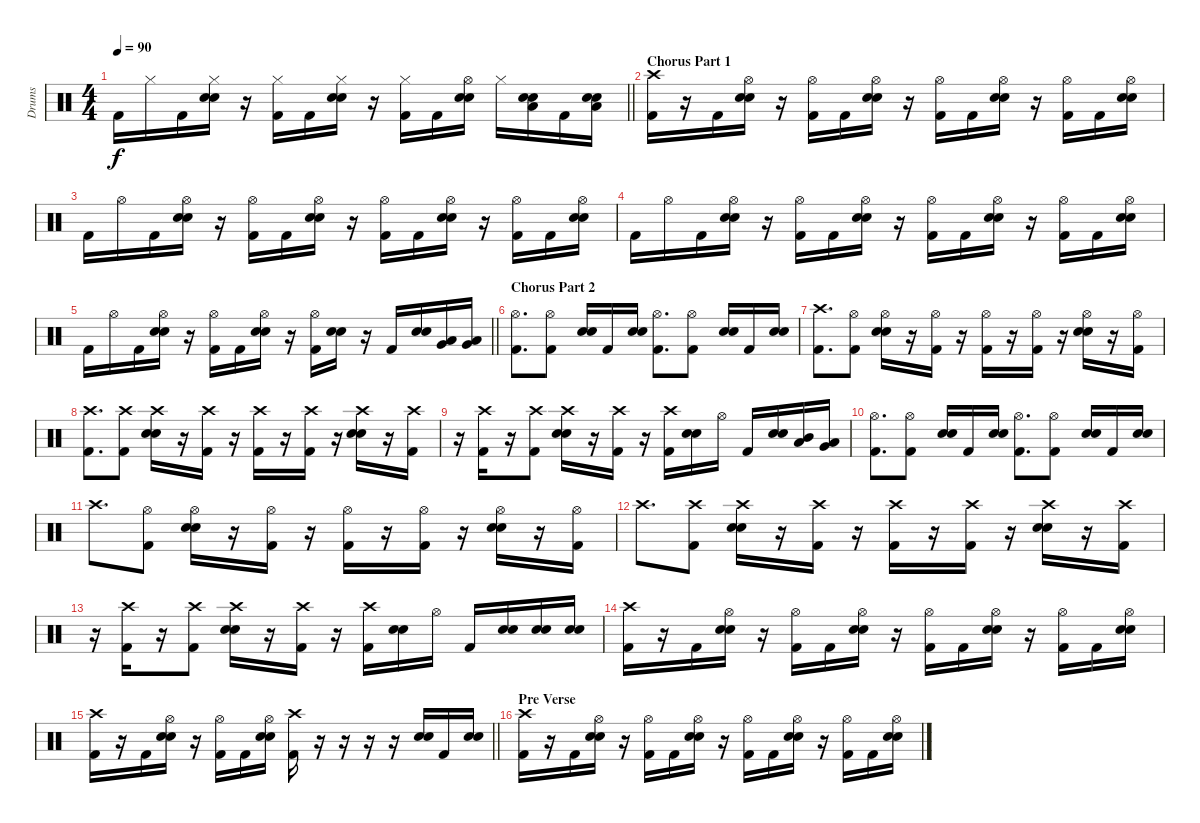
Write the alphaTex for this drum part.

\track ("Drums" "Drums") {instrument percussion}
\staff {score}
\articulation defaults
\ts (4 4)
\tempo 90
\clef neutral
\barLineRight lightlight
\ks c "Kick (hit) 2".16{dy f} "Hi-Hat (closed)".16 "Kick (hit) 2".16
("Hi-Hat (closed)" "Snare (hit) 2" "Snare (hit) 2").16 r.16 ("Hi-Hat (closed)" "Kick (hit) 2").16 "Kick (hit) 2".16 ("Hi-Hat (closed)" "Snare (hit) 2" "Snare (hit) 2").16 r.16 ("Hi-Hat (closed)" "Kick (hit) 2").16 "Kick (hit) 2".16 ("Hi-Hat (open)" "Snare (hit) 2" "Snare (hit) 2").16 "Hi-Hat (closed)".16 ("Low Floor Tom (hit)" "Snare (hit) 2" "Snare (hit) 2").16 "Kick (hit) 2".16 ("Low Floor Tom (hit)" "Snare (hit) 2" "Snare (hit) 2").16 |
\section ("" "Chorus Part 1")
("Crash high (hit)" "Kick (hit) 2").16 r.16 "Kick (hit) 2".16 ("Hi-Hat (open)" "Snare (hit) 2" "Snare (hit) 2").16 r.16 ("Hi-Hat (open)" "Kick (hit) 2").16 "Kick (hit) 2".16 ("Hi-Hat (open)" "Snare (hit) 2" "Snare (hit) 2").16 r.16 ("Hi-Hat (open)" "Kick (hit) 2").16 "Kick (hit) 2".16 ("Hi-Hat (open)" "Snare (hit) 2" "Snare (hit) 2").16 r.16 ("Hi-Hat (open)" "Kick (hit) 2").16 "Kick (hit) 2".16 ("Hi-Hat (open)" "Snare (hit) 2" "Snare (hit) 2").16 |
"Kick (hit) 2".16 "Hi-Hat (open)".16 "Kick (hit) 2".16 ("Hi-Hat (open)" "Snare (hit) 2" "Snare (hit) 2").16 r.16 ("Hi-Hat (open)" "Kick (hit) 2").16 "Kick (hit) 2".16 ("Hi-Hat (open)" "Snare (hit) 2" "Snare (hit) 2").16 r.16 ("Hi-Hat (open)" "Kick (hit) 2").16 "Kick (hit) 2".16 ("Hi-Hat (open)" "Snare (hit) 2" "Snare (hit) 2").16 r.16 ("Hi-Hat (open)" "Kick (hit) 2").16 "Kick (hit) 2".16 ("Hi-Hat (open)" "Snare (hit) 2" "Snare (hit) 2").16 |
"Kick (hit) 2".16 "Hi-Hat (open)".16 "Kick (hit) 2".16 ("Hi-Hat (open)" "Snare (hit) 2" "Snare (hit) 2").16 r.16 ("Hi-Hat (open)" "Kick (hit) 2").16 "Kick (hit) 2".16 ("Hi-Hat (open)" "Snare (hit) 2" "Snare (hit) 2").16 r.16 ("Hi-Hat (open)" "Kick (hit) 2").16 "Kick (hit) 2".16 ("Hi-Hat (open)" "Snare (hit) 2" "Snare (hit) 2").16 r.16 ("Hi-Hat (open)" "Kick (hit) 2").16 "Kick (hit) 2".16 ("Hi-Hat (open)" "Snare (hit) 2" "Snare (hit) 2").16 |
\barLineRight lightlight "Kick (hit) 2".16 "Hi-Hat (open)".16 "Kick (hit) 2".16
("Hi-Hat (open)" "Snare (hit) 2" "Snare (hit) 2").16 r.16 ("Hi-Hat (open)" "Kick (hit) 2").16 "Kick (hit) 2".16 ("Hi-Hat (open)" "Snare (hit) 2" "Snare (hit) 2").16 r.16 ("Hi-Hat (open)" "Kick (hit) 2").16 ("Snare (hit) 2" "Snare (hit) 2").16 r.16 "Kick (hit) 2".16 ("Snare (hit) 2" "Snare (hit) 2").16 ("Very Low Tom (hit)" "Low Tom (hit)").16 ("Low Floor Tom (hit)" "Very Low Tom (hit)").16 |
\section ("" "Chorus Part 2")
("Hi-Hat (open)" "Kick (hit) 2").8{d} ("Hi-Hat (open)" "Kick (hit) 2").8 ("Snare (hit) 2" "Snare (hit) 2").16 "Kick (hit) 2".16 ("Snare (hit) 2" "Snare (hit) 2").16 ("Hi-Hat (open)" "Kick (hit) 2").8{d} ("Hi-Hat (open)" "Kick (hit) 2").8 ("Snare (hit) 2" "Snare (hit) 2").16 "Kick (hit) 2".16 ("Snare (hit) 2" "Snare (hit) 2").16 |
("Crash high (hit)" "Kick (hit) 2").8{d} ("Hi-Hat (open)" "Kick (hit) 2").8 ("Hi-Hat (open)" "Snare (hit) 2" "Snare (hit) 2").16 r.16 ("Hi-Hat (open)" "Kick (hit) 2").16 r.16 ("Hi-Hat (open)" "Kick (hit) 2").16 r.16 ("Hi-Hat (open)" "Kick (hit) 2").16 r.16 ("Hi-Hat (open)" "Snare (hit) 2" "Snare (hit) 2").16 r.16 ("Hi-Hat (open)" "Kick (hit) 2").16 |
("Crash high (hit)" "Kick (hit) 2").8{d} ("Crash high (hit)" "Kick (hit) 2").8 ("Crash high (hit)" "Snare (hit) 2" "Snare (hit) 2").16 r.16 ("Crash high (hit)" "Kick (hit) 2").16 r.16 ("Crash high (hit)" "Kick (hit) 2").16 r.16 ("Crash high (hit)" "Kick (hit) 2").16 r.16 ("Crash high (hit)" "Snare (hit) 2" "Snare (hit) 2").16 r.16 ("Crash high (hit)" "Kick (hit) 2").16 |
r.16 ("Crash high (hit)" "Kick (hit) 2").16 r.16 ("Crash high (hit)" "Kick (hit) 2").8 ("Crash high (hit)" "Snare (hit) 2" "Snare (hit) 2").16 r.16 ("Crash high (hit)" "Kick (hit) 2").16 r.16 ("Crash high (hit)" "Kick (hit) 2").16 ("Snare (hit) 2" "Snare (hit) 2").16 "Hi-Hat (open)".16 "Kick (hit) 2".16 ("Snare (hit) 2" "Snare (hit) 2").16 ("Low Tom (hit)" "Mid Tom (hit)").16 ("Very Low Tom (hit)" "Low Tom (hit)").16 |
("Hi-Hat (open)" "Kick (hit) 2").8{d} ("Hi-Hat (open)" "Kick (hit) 2").8 ("Snare (hit) 2" "Snare (hit) 2").16 "Kick (hit) 2".16 ("Snare (hit) 2" "Snare (hit) 2").16 ("Hi-Hat (open)" "Kick (hit) 2").8{d} ("Hi-Hat (open)" "Kick (hit) 2").8 ("Snare (hit) 2" "Snare (hit) 2").16 "Kick (hit) 2".16 ("Snare (hit) 2" "Snare (hit) 2").16 |
"Crash high (hit)".8{d} ("Hi-Hat (open)" "Kick (hit) 2").8 ("Hi-Hat (open)" "Snare (hit) 2" "Snare (hit) 2").16 r.16 ("Hi-Hat (open)" "Kick (hit) 2").16 r.16 ("Hi-Hat (open)" "Kick (hit) 2").16 r.16 ("Hi-Hat (open)" "Kick (hit) 2").16 r.16 ("Hi-Hat (open)" "Snare (hit) 2" "Snare (hit) 2").16 r.16 ("Hi-Hat (open)" "Kick (hit) 2").16 |
"Crash high (hit)".8{d} ("Crash high (hit)" "Kick (hit) 2").8 ("Crash high (hit)" "Snare (hit) 2" "Snare (hit) 2").16 r.16 ("Crash high (hit)" "Kick (hit) 2").16 r.16 ("Crash high (hit)" "Kick (hit) 2").16 r.16 ("Crash high (hit)" "Kick (hit) 2").16 r.16 ("Crash high (hit)" "Snare (hit) 2" "Snare (hit) 2").16 r.16 ("Crash high (hit)" "Kick (hit) 2").16 |
r.16 ("Crash high (hit)" "Kick (hit) 2").16 r.16 ("Crash high (hit)" "Kick (hit) 2").8 ("Crash high (hit)" "Snare (hit) 2" "Snare (hit) 2").16 r.16 ("Crash high (hit)" "Kick (hit) 2").16 r.16 ("Crash high (hit)" "Kick (hit) 2").16 ("Snare (hit) 2" "Snare (hit) 2").16 "Hi-Hat (open)".16 "Kick (hit) 2".16 ("Snare (hit) 2" "Snare (hit) 2").16 ("Snare (hit) 2" "Snare (hit) 2").16 ("Snare (hit) 2" "Snare (hit) 2").16 |
("Crash high (hit)" "Kick (hit) 2").16 r.16 "Kick (hit) 2".16 ("Hi-Hat (open)" "Snare (hit) 2" "Snare (hit) 2").16 r.16 ("Hi-Hat (open)" "Kick (hit) 2").16 "Kick (hit) 2".16 ("Hi-Hat (open)" "Snare (hit) 2" "Snare (hit) 2").16 r.16 ("Hi-Hat (open)" "Kick (hit) 2").16 "Kick (hit) 2".16 ("Hi-Hat (open)" "Snare (hit) 2" "Snare (hit) 2").16 r.16 ("Hi-Hat (open)" "Kick (hit) 2").16 "Kick (hit) 2".16 ("Hi-Hat (open)" "Snare (hit) 2" "Snare (hit) 2").16 |
\barLineRight lightlight
("Crash high (hit)" "Kick (hit) 2").16 r.16 "Kick (hit) 2".16 ("Hi-Hat (open)" "Snare (hit) 2" "Snare (hit) 2").16 r.16 ("Hi-Hat (open)" "Kick (hit) 2").16 "Kick (hit) 2".16 ("Hi-Hat (open)" "Snare (hit) 2" "Snare (hit) 2").16 ("Crash high (hit)" "Kick (hit) 2").16 r.16 r.16 r.16 r.16 ("Snare (hit) 2" "Snare (hit) 2").16 "Kick (hit) 2".16 ("Snare (hit) 2" "Snare (hit) 2").16 |
\section ("" "Pre Verse")
("Crash high (hit)" "Kick (hit) 2").16 r.16 "Kick (hit) 2".16 ("Hi-Hat (open)" "Snare (hit) 2" "Snare (hit) 2").16 r.16 ("Hi-Hat (open)" "Kick (hit) 2").16 "Kick (hit) 2".16 ("Hi-Hat (open)" "Snare (hit) 2" "Snare (hit) 2").16 r.16 ("Hi-Hat (open)" "Kick (hit) 2").16 "Kick (hit) 2".16 ("Hi-Hat (open)" "Snare (hit) 2" "Snare (hit) 2").16 r.16 ("Hi-Hat (open)" "Kick (hit) 2").16 "Kick (hit) 2".16 ("Hi-Hat (open)" "Snare (hit) 2" "Snare (hit) 2").16
